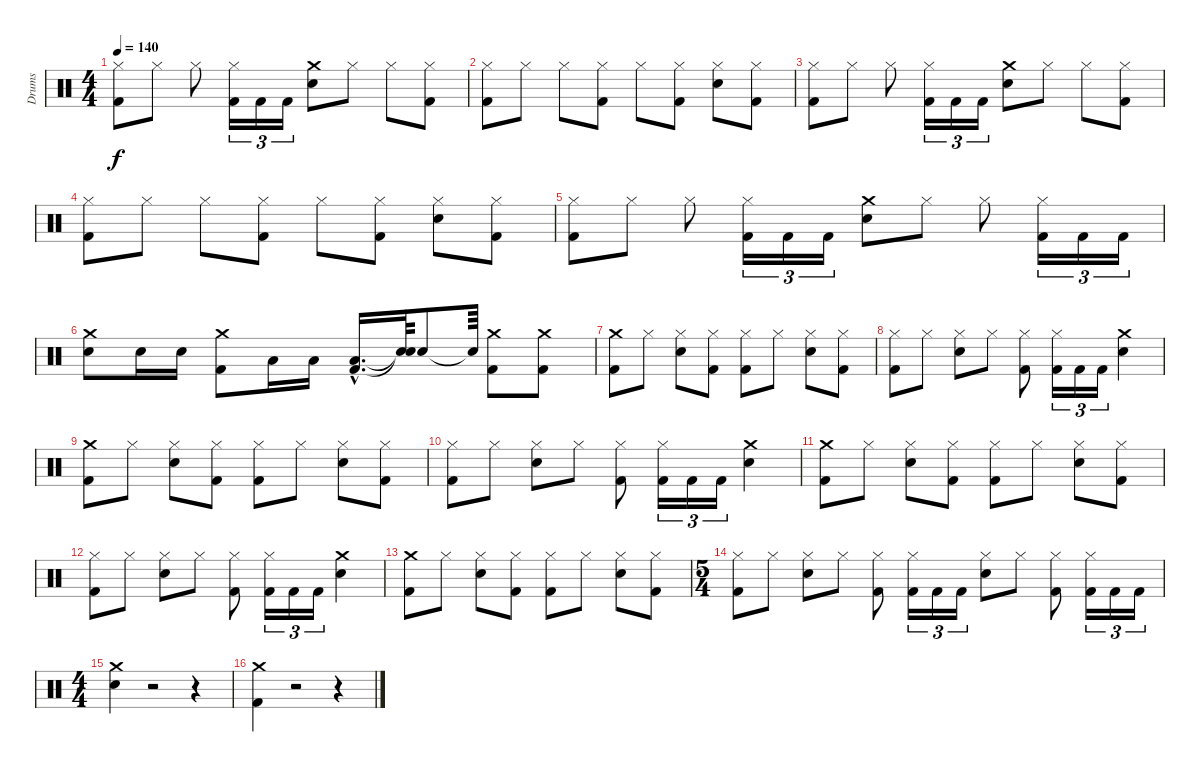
\track ("Drums" "Drums") {instrument percussion}
\staff {score}
\articulation defaults
\ts (4 4)
\tempo 140
\clef neutral
\ks c
("Hi-Hat (closed)" "Kick (hit) 2").8{dy f} "Hi-Hat (closed)".8 "Hi-Hat (closed)".8 ("Hi-Hat (closed)" "Kick (hit) 2").16{tu (3 2)} "Kick (hit) 2".16{tu (3 2)} "Kick (hit) 2".16{tu (3 2)} ("Crash medium (hit)" "Snare (hit) 2").8 "Hi-Hat (closed)".8 "Hi-Hat (closed)".8 ("Hi-Hat (closed)" "Kick (hit) 2").8 |
("Hi-Hat (closed)" "Kick (hit) 2").8 "Hi-Hat (closed)".8 "Hi-Hat (closed)".8 ("Kick (hit) 2" "Hi-Hat (closed)").8 "Hi-Hat (closed)".8 ("Kick (hit) 2" "Hi-Hat (closed)").8 ("Hi-Hat (closed)" "Snare (hit) 2").8 ("Kick (hit) 2" "Hi-Hat (closed)").8 |
("Hi-Hat (closed)" "Kick (hit) 2").8 "Hi-Hat (closed)".8 "Hi-Hat (closed)".8 ("Hi-Hat (closed)" "Kick (hit) 2").16{tu (3 2)} "Kick (hit) 2".16{tu (3 2)} "Kick (hit) 2".16{tu (3 2)} ("Crash medium (hit)" "Snare (hit) 2").8 "Hi-Hat (closed)".8 "Hi-Hat (closed)".8 ("Hi-Hat (closed)" "Kick (hit) 2").8 |
("Hi-Hat (closed)" "Kick (hit) 2").8 "Hi-Hat (closed)".8 "Hi-Hat (closed)".8 ("Kick (hit) 2" "Hi-Hat (closed)").8 "Hi-Hat (closed)".8 ("Kick (hit) 2" "Hi-Hat (closed)").8 ("Hi-Hat (closed)" "Snare (hit) 2").8 ("Kick (hit) 2" "Hi-Hat (closed)").8 |
("Hi-Hat (closed)" "Kick (hit) 2").8 "Hi-Hat (closed)".8 "Hi-Hat (closed)".8 ("Hi-Hat (closed)" "Kick (hit) 2").16{tu (3 2)} "Kick (hit) 2".16{tu (3 2)} "Kick (hit) 2".16{tu (3 2)} ("Crash medium (hit)" "Snare (hit) 2").8 "Hi-Hat (closed)".8 "Hi-Hat (closed)".8 ("Hi-Hat (closed)" "Kick (hit) 2").16{tu (3 2)} "Kick (hit) 2".16{tu (3 2)} "Kick (hit) 2".16{tu (3 2)} |
("Snare (hit) 2" "Crash medium (hit)").8 "Snare (hit) 2".16 "Snare (hit) 2".16 ("Kick (hit) 2" "Crash medium (hit)").8 "Low Tom (hit)".16 "Low Tom (hit)".16 ("Kick (hit) 2"{hac} "Low Tom (hit)"{hac}).16{d} ("Snare (hit)"{t} "Snare (hit)"{t}).64 "Snare (hit) 2".8 "Snare (hit)"{t}.64 ("Kick (hit) 2" "Crash medium (hit)").8 ("Kick (hit) 2" "Crash medium (hit)").8 |
("Crash medium (hit)" "Kick (hit) 2").8 "Hi-Hat (closed)".8 ("Snare (hit) 2" "Hi-Hat (closed)").8 ("Hi-Hat (closed)" "Kick (hit) 2").8 ("Hi-Hat (closed)" "Kick (hit) 2").8 "Hi-Hat (closed)".8 ("Snare (hit) 2" "Hi-Hat (closed)").8 ("Hi-Hat (closed)" "Kick (hit) 2").8 |
("Hi-Hat (closed)" "Kick (hit) 2").8 "Hi-Hat (closed)".8 ("Snare (hit) 2" "Hi-Hat (closed)").8 "Hi-Hat (closed)".8 ("Hi-Hat (closed)" "Kick (hit) 2").8 ("Hi-Hat (closed)" "Kick (hit) 2").16{tu (3 2)} "Kick (hit) 2".16{tu (3 2)} "Kick (hit) 2".16{tu (3 2)} ("Crash medium (hit)" "Snare (hit) 2").4 |
("Crash medium (hit)" "Kick (hit) 2").8 "Hi-Hat (closed)".8 ("Snare (hit) 2" "Hi-Hat (closed)").8 ("Hi-Hat (closed)" "Kick (hit) 2").8 ("Hi-Hat (closed)" "Kick (hit) 2").8 "Hi-Hat (closed)".8 ("Snare (hit) 2" "Hi-Hat (closed)").8 ("Hi-Hat (closed)" "Kick (hit) 2").8 |
("Hi-Hat (closed)" "Kick (hit) 2").8 "Hi-Hat (closed)".8 ("Snare (hit) 2" "Hi-Hat (closed)").8 "Hi-Hat (closed)".8 ("Hi-Hat (closed)" "Kick (hit) 2").8 ("Hi-Hat (closed)" "Kick (hit) 2").16{tu (3 2)} "Kick (hit) 2".16{tu (3 2)} "Kick (hit) 2".16{tu (3 2)} ("Crash medium (hit)" "Snare (hit) 2").4 |
("Crash medium (hit)" "Kick (hit) 2").8 "Hi-Hat (closed)".8 ("Snare (hit) 2" "Hi-Hat (closed)").8 ("Hi-Hat (closed)" "Kick (hit) 2").8 ("Hi-Hat (closed)" "Kick (hit) 2").8 "Hi-Hat (closed)".8 ("Snare (hit) 2" "Hi-Hat (closed)").8 ("Hi-Hat (closed)" "Kick (hit) 2").8 |
("Hi-Hat (closed)" "Kick (hit) 2").8 "Hi-Hat (closed)".8 ("Snare (hit) 2" "Hi-Hat (closed)").8 "Hi-Hat (closed)".8 ("Hi-Hat (closed)" "Kick (hit) 2").8 ("Hi-Hat (closed)" "Kick (hit) 2").16{tu (3 2)} "Kick (hit) 2".16{tu (3 2)} "Kick (hit) 2".16{tu (3 2)} ("Crash medium (hit)" "Snare (hit) 2").4 |
("Kick (hit) 2" "Crash medium (hit)").8 "Hi-Hat (closed)".8 ("Snare (hit) 2" "Hi-Hat (closed)").8 ("Kick (hit) 2" "Hi-Hat (closed)").8 ("Kick (hit) 2" "Hi-Hat (closed)").8 "Hi-Hat (closed)".8 ("Snare (hit) 2" "Hi-Hat (closed)").8 ("Kick (hit) 2" "Hi-Hat (closed)").8 |
\ts (5 4)
("Hi-Hat (closed)" "Kick (hit) 2").8 "Hi-Hat (closed)".8 ("Snare (hit) 2" "Hi-Hat (closed)").8 "Hi-Hat (closed)".8 ("Hi-Hat (closed)" "Kick (hit) 2").8 ("Hi-Hat (closed)" "Kick (hit) 2").16{tu (3 2)} "Kick (hit) 2".16{tu (3 2)} "Kick (hit) 2".16{tu (3 2)} ("Snare (hit) 2" "Hi-Hat (closed)").8 "Hi-Hat (closed)".8 ("Hi-Hat (closed)" "Kick (hit) 2").8 ("Hi-Hat (closed)" "Kick (hit) 2").16{tu (3 2)} "Kick (hit) 2".16{tu (3 2)} "Kick (hit) 2".16{tu (3 2)} |
\ts (4 4)
("Snare (hit) 2" "Crash medium (hit)").4 r.2 r.4 |
("Kick (hit) 2" "Crash medium (hit)").4 r.2 r.4
